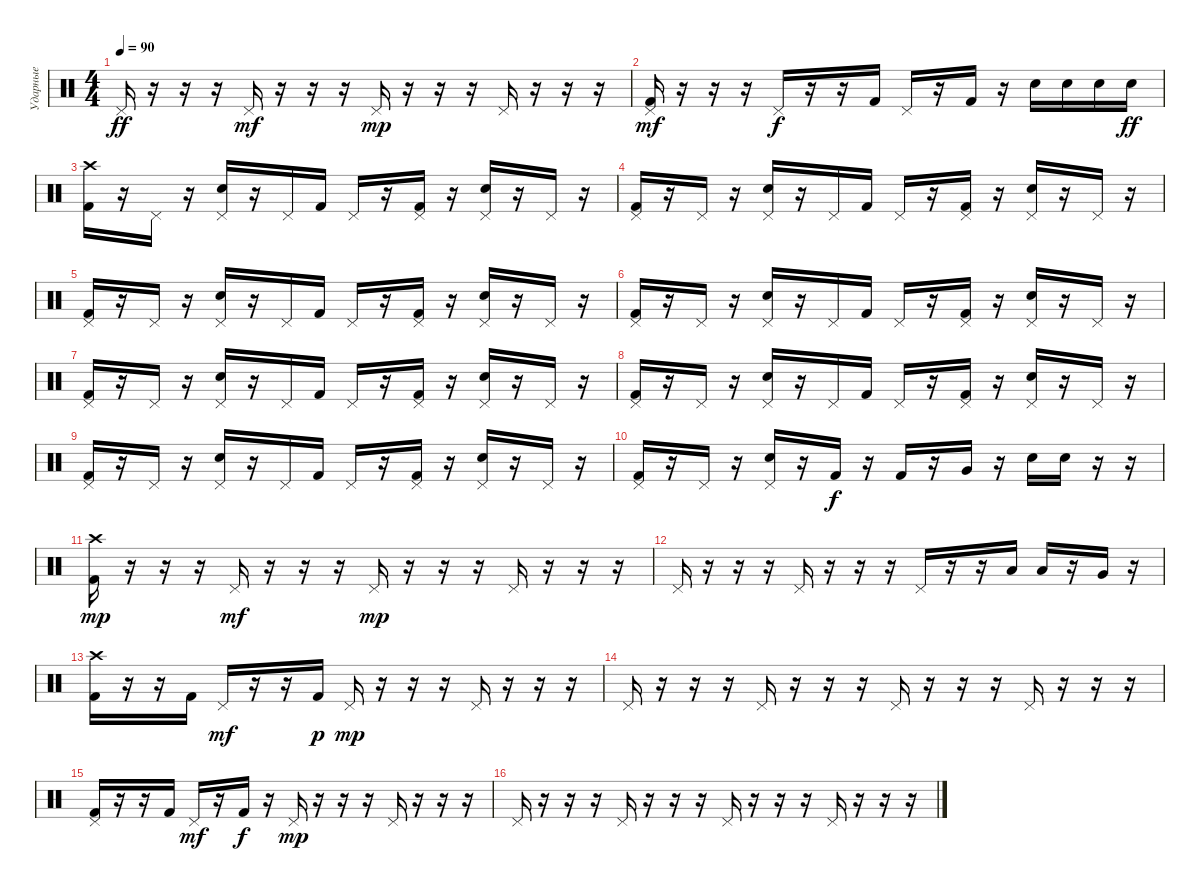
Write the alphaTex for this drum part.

\track ("Ударные" "Ударные") {instrument percussion}
\staff {score}
\articulation defaults
\ts (4 4)
\tempo 90
\clef neutral
\ks aminor "Pedal Hi-Hat (hit)".16{dy ff}
r.16 r.16 r.16 "Pedal Hi-Hat (hit)".16{dy mf} r.16 r.16 r.16 "Pedal Hi-Hat (hit)".16{dy mp} r.16 r.16 r.16 "Pedal Hi-Hat (hit)".16 r.16 r.16 r.16 |
("Pedal Hi-Hat (hit)" "Kick (hit) 2").16{dy mf} r.16 r.16 r.16 "Pedal Hi-Hat (hit)".16{dy f} r.16 r.16 "Kick (hit) 2".16 "Pedal Hi-Hat (hit)".16 r.16 "Kick (hit) 2".16 r.16 "Electric Snare (hit)".16 "Electric Snare (hit)".16 "Electric Snare (hit)".16 "Electric Snare (hit)".16{dy ff} |
("Crash high (hit)" "Kick (hit) 2").16 r.16 "Pedal Hi-Hat (hit)".16 r.16 ("Pedal Hi-Hat (hit)" "Electric Snare (hit)").16 r.16 "Pedal Hi-Hat (hit)".16 "Kick (hit) 2".16 "Pedal Hi-Hat (hit)".16 r.16 ("Pedal Hi-Hat (hit)" "Kick (hit) 2").16 r.16 ("Pedal Hi-Hat (hit)" "Electric Snare (hit)").16 r.16 "Pedal Hi-Hat (hit)".16 r.16 |
("Pedal Hi-Hat (hit)" "Kick (hit) 2").16 r.16 "Pedal Hi-Hat (hit)".16 r.16 ("Pedal Hi-Hat (hit)" "Electric Snare (hit)").16 r.16 "Pedal Hi-Hat (hit)".16 "Kick (hit) 2".16 "Pedal Hi-Hat (hit)".16 r.16 ("Pedal Hi-Hat (hit)" "Kick (hit) 2").16 r.16 ("Pedal Hi-Hat (hit)" "Electric Snare (hit)").16 r.16 "Pedal Hi-Hat (hit)".16 r.16 |
("Pedal Hi-Hat (hit)" "Kick (hit) 2").16 r.16 "Pedal Hi-Hat (hit)".16 r.16 ("Pedal Hi-Hat (hit)" "Electric Snare (hit)").16 r.16 "Pedal Hi-Hat (hit)".16 "Kick (hit) 2".16 "Pedal Hi-Hat (hit)".16 r.16 ("Pedal Hi-Hat (hit)" "Kick (hit) 2").16 r.16 ("Pedal Hi-Hat (hit)" "Electric Snare (hit)").16 r.16 "Pedal Hi-Hat (hit)".16 r.16 |
("Pedal Hi-Hat (hit)" "Kick (hit) 2").16 r.16 "Pedal Hi-Hat (hit)".16 r.16 ("Pedal Hi-Hat (hit)" "Electric Snare (hit)").16 r.16 "Pedal Hi-Hat (hit)".16 "Kick (hit) 2".16 "Pedal Hi-Hat (hit)".16 r.16 ("Pedal Hi-Hat (hit)" "Kick (hit) 2").16 r.16 ("Pedal Hi-Hat (hit)" "Electric Snare (hit)").16 r.16 "Pedal Hi-Hat (hit)".16 r.16 |
("Pedal Hi-Hat (hit)" "Kick (hit) 2").16 r.16 "Pedal Hi-Hat (hit)".16 r.16 ("Pedal Hi-Hat (hit)" "Electric Snare (hit)").16 r.16 "Pedal Hi-Hat (hit)".16 "Kick (hit) 2".16 "Pedal Hi-Hat (hit)".16 r.16 ("Pedal Hi-Hat (hit)" "Kick (hit) 2").16 r.16 ("Pedal Hi-Hat (hit)" "Electric Snare (hit)").16 r.16 "Pedal Hi-Hat (hit)".16 r.16 |
("Pedal Hi-Hat (hit)" "Kick (hit) 2").16 r.16 "Pedal Hi-Hat (hit)".16 r.16 ("Pedal Hi-Hat (hit)" "Electric Snare (hit)").16 r.16 "Pedal Hi-Hat (hit)".16 "Kick (hit) 2".16 "Pedal Hi-Hat (hit)".16 r.16 ("Pedal Hi-Hat (hit)" "Kick (hit) 2").16 r.16 ("Pedal Hi-Hat (hit)" "Electric Snare (hit)").16 r.16 "Pedal Hi-Hat (hit)".16 r.16 |
("Pedal Hi-Hat (hit)" "Kick (hit) 2").16 r.16 "Pedal Hi-Hat (hit)".16 r.16 ("Pedal Hi-Hat (hit)" "Electric Snare (hit)").16 r.16 "Pedal Hi-Hat (hit)".16 "Kick (hit) 2".16 "Pedal Hi-Hat (hit)".16 r.16 ("Pedal Hi-Hat (hit)" "Kick (hit) 2").16 r.16 ("Pedal Hi-Hat (hit)" "Electric Snare (hit)").16 r.16 "Pedal Hi-Hat (hit)".16 r.16 |
("Pedal Hi-Hat (hit)" "Kick (hit) 2").16 r.16 "Pedal Hi-Hat (hit)".16 r.16 ("Pedal Hi-Hat (hit)" "Electric Snare (hit)").16 r.16 "Kick (hit) 2".16{dy f} r.16 "Kick (hit) 2".16 r.16 "Very Low Tom (hit)".16 r.16 "Electric Snare (hit)".16 "Electric Snare (hit)".16 r.16 r.16 |
("Crash high (hit)" "Kick (hit) 2").16{dy mp} r.16 r.16 r.16 "Pedal Hi-Hat (hit)".16{dy mf} r.16 r.16 r.16 "Pedal Hi-Hat (hit)".16{dy mp} r.16 r.16 r.16 "Pedal Hi-Hat (hit)".16 r.16 r.16 r.16 |
"Pedal Hi-Hat (hit)".16 r.16 r.16 r.16 "Pedal Hi-Hat (hit)".16 r.16 r.16 r.16 "Pedal Hi-Hat (hit)".16 r.16 r.16 "Low Tom (hit)".16 "Low Tom (hit)".16 r.16 "Very Low Tom (hit)".16 r.16 |
("Crash high (hit)" "Kick (hit) 2").16 r.16 r.16 "Kick (hit) 2".16 "Pedal Hi-Hat (hit)".16{dy mf} r.16 r.16 "Kick (hit) 2".16{dy p} "Pedal Hi-Hat (hit)".16{dy mp} r.16 r.16 r.16 "Pedal Hi-Hat (hit)".16 r.16 r.16 r.16 |
"Pedal Hi-Hat (hit)".16 r.16 r.16 r.16 "Pedal Hi-Hat (hit)".16 r.16 r.16 r.16 "Pedal Hi-Hat (hit)".16 r.16 r.16 r.16 "Pedal Hi-Hat (hit)".16 r.16 r.16 r.16 |
("Pedal Hi-Hat (hit)" "Kick (hit) 2").16 r.16 r.16 "Kick (hit) 2".16 "Pedal Hi-Hat (hit)".16{dy mf} r.16 "Kick (hit) 2".16{dy f} r.16 "Pedal Hi-Hat (hit)".16{dy mp} r.16 r.16 r.16 "Pedal Hi-Hat (hit)".16 r.16 r.16 r.16 |
"Pedal Hi-Hat (hit)".16 r.16 r.16 r.16 "Pedal Hi-Hat (hit)".16 r.16 r.16 r.16 "Pedal Hi-Hat (hit)".16 r.16 r.16 r.16 "Pedal Hi-Hat (hit)".16 r.16 r.16 r.16
